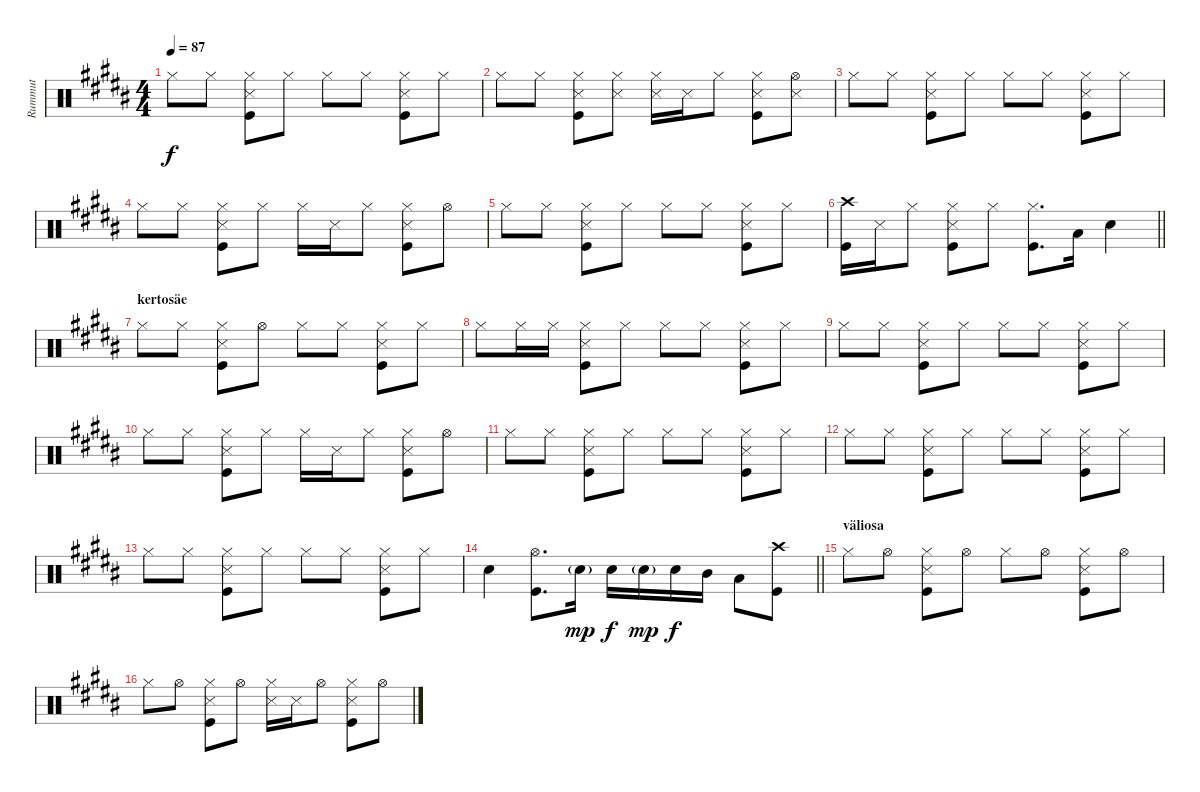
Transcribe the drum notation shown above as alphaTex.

\track ("Rummut" "Rummut") {instrument percussion}
\staff {score}
\articulation defaults
\ts (4 4)
\tempo 87
\clef neutral
\ks g#minor "Hi-Hat (closed)".8{dy f} "Hi-Hat (closed)".8
("Hi-Hat (closed)" "Snare (side stick) 3" "Kick (hit)").8 "Hi-Hat (closed)".8 "Hi-Hat (closed)".8 "Hi-Hat (closed)".8 ("Hi-Hat (closed)" "Snare (side stick) 3" "Kick (hit)").8 "Hi-Hat (closed)".8 |
"Hi-Hat (closed)".8 "Hi-Hat (closed)".8 ("Hi-Hat (closed)" "Snare (side stick) 3" "Kick (hit)").8 ("Hi-Hat (closed)" "Snare (side stick) 3").8 ("Hi-Hat (closed)" "Snare (side stick) 3").16 "Snare (side stick) 3".16 "Hi-Hat (closed)".8 ("Hi-Hat (closed)" "Snare (side stick) 3" "Kick (hit)").8 ("Hi-Hat (open)" "Snare (side stick) 3").8 |
"Hi-Hat (closed)".8 "Hi-Hat (closed)".8 ("Hi-Hat (closed)" "Snare (side stick) 3" "Kick (hit)").8 "Hi-Hat (closed)".8 "Hi-Hat (closed)".8 "Hi-Hat (closed)".8 ("Hi-Hat (closed)" "Snare (side stick) 3" "Kick (hit)").8 "Hi-Hat (closed)".8 |
"Hi-Hat (closed)".8 "Hi-Hat (closed)".8 ("Hi-Hat (closed)" "Snare (side stick) 3" "Kick (hit)").8 "Hi-Hat (closed)".8 "Hi-Hat (closed)".16 "Snare (side stick) 3".16 "Hi-Hat (closed)".8 ("Hi-Hat (closed)" "Snare (side stick) 3" "Kick (hit)").8 "Hi-Hat (open)".8 |
"Hi-Hat (closed)".8 "Hi-Hat (closed)".8 ("Hi-Hat (closed)" "Snare (side stick) 3" "Kick (hit)").8 "Hi-Hat (closed)".8 "Hi-Hat (closed)".8 "Hi-Hat (closed)".8 ("Hi-Hat (closed)" "Snare (side stick) 3" "Kick (hit)").8 "Hi-Hat (closed)".8 |
\barLineRight lightlight
("Crash high (hit)" "Kick (hit)").16 "Snare (side stick) 3".16 "Hi-Hat (closed)".8 ("Hi-Hat (closed)" "Snare (side stick) 3" "Kick (hit)").8 "Hi-Hat (closed)".8 ("Hi-Hat (closed)" "Kick (hit)").8{d} "Low Floor Tom (hit)".16 "Snare (hit) 2".4 |
\section ("" "kertosäe")
"Hi-Hat (closed)".8 "Hi-Hat (closed)".8 ("Hi-Hat (closed)" "Snare (side stick) 3" "Kick (hit)").8 "Hi-Hat (open)".8 "Hi-Hat (closed)".8 "Hi-Hat (closed)".8 ("Hi-Hat (closed)" "Snare (side stick) 3" "Kick (hit)").8 "Hi-Hat (closed)".8 |
"Hi-Hat (closed)".8 "Hi-Hat (closed)".16 "Hi-Hat (closed)".16 ("Hi-Hat (closed)" "Snare (side stick) 3" "Kick (hit)").8 "Hi-Hat (closed)".8 "Hi-Hat (closed)".8 "Hi-Hat (closed)".8 ("Hi-Hat (closed)" "Snare (side stick) 3" "Kick (hit)").8 "Hi-Hat (closed)".8 |
"Hi-Hat (closed)".8 "Hi-Hat (closed)".8 ("Hi-Hat (closed)" "Snare (side stick) 3" "Kick (hit)").8 "Hi-Hat (closed)".8 "Hi-Hat (closed)".8 "Hi-Hat (closed)".8 ("Hi-Hat (closed)" "Snare (side stick) 3" "Kick (hit)").8 "Hi-Hat (closed)".8 |
"Hi-Hat (closed)".8 "Hi-Hat (closed)".8 ("Hi-Hat (closed)" "Snare (side stick) 3" "Kick (hit)").8 "Hi-Hat (closed)".8 "Hi-Hat (closed)".16 "Snare (side stick) 3".16 "Hi-Hat (closed)".8 ("Hi-Hat (closed)" "Snare (side stick) 3" "Kick (hit)").8 "Hi-Hat (open)".8 |
"Hi-Hat (closed)".8 "Hi-Hat (closed)".8 ("Hi-Hat (closed)" "Snare (side stick) 3" "Kick (hit)").8 "Hi-Hat (closed)".8 "Hi-Hat (closed)".8 "Hi-Hat (closed)".8 ("Hi-Hat (closed)" "Snare (side stick) 3" "Kick (hit)").8 "Hi-Hat (closed)".8 |
"Hi-Hat (closed)".8 "Hi-Hat (closed)".8 ("Hi-Hat (closed)" "Snare (side stick) 3" "Kick (hit)").8 "Hi-Hat (closed)".8 "Hi-Hat (closed)".8 "Hi-Hat (closed)".8 ("Hi-Hat (closed)" "Snare (side stick) 3" "Kick (hit)").8 "Hi-Hat (closed)".8 |
"Hi-Hat (closed)".8 "Hi-Hat (closed)".8 ("Hi-Hat (closed)" "Snare (side stick) 3" "Kick (hit)").8 "Hi-Hat (closed)".8 "Hi-Hat (closed)".8 "Hi-Hat (closed)".8 ("Hi-Hat (closed)" "Snare (side stick) 3" "Kick (hit)").8 "Hi-Hat (closed)".8 |
\barLineRight lightlight "Snare (hit) 2".4
("Hi-Hat (open)" "Kick (hit)").8{d} "Snare (hit) 2"{g}.16{dy mp} "Snare (hit) 2".16{dy f} "Snare (hit) 2"{g}.16{dy mp} "Snare (hit) 2".16{dy f} "Mid Tom (hit)".16 "Low Floor Tom (hit)".8 ("Crash high (hit)" "Kick (hit)").8 |
\section ("" "väliosa")
"Hi-Hat (closed)".8 "Hi-Hat (open)".8 ("Hi-Hat (closed)" "Snare (side stick) 3" "Kick (hit)").8 "Hi-Hat (open)".8 "Hi-Hat (closed)".8 "Hi-Hat (open)".8 ("Hi-Hat (closed)" "Snare (side stick) 3" "Kick (hit)").8 "Hi-Hat (open)".8 |
"Hi-Hat (closed)".8 "Hi-Hat (open)".8 ("Hi-Hat (closed)" "Snare (side stick) 3" "Kick (hit)").8 "Hi-Hat (open)".8 ("Hi-Hat (closed)" "Snare (side stick) 3").16 "Snare (side stick) 3".16 "Hi-Hat (open)".8 ("Hi-Hat (closed)" "Snare (side stick) 3" "Kick (hit)").8 "Hi-Hat (open)".8
